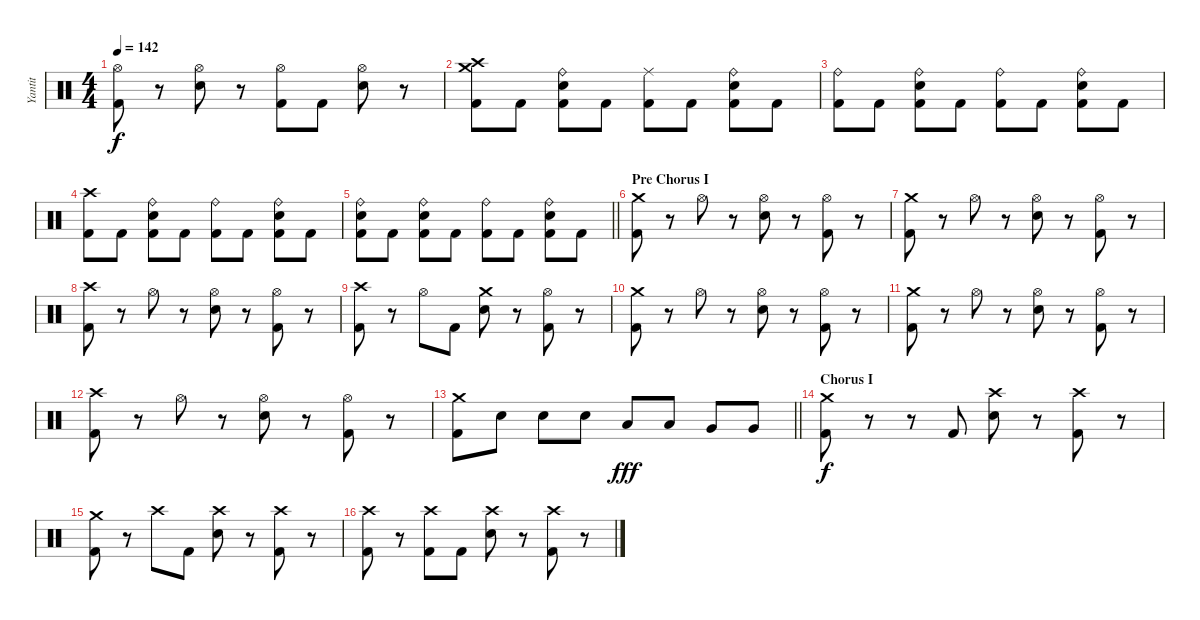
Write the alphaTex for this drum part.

\track ("Yantit" "Yantit") {instrument percussion}
\staff {score}
\articulation defaults
\ts (4 4)
\tempo 142
\clef neutral
\ks c
("Hi-Hat (open)" "Kick (hit) 2").8{dy f} r.8 ("Hi-Hat (open)" "Electric Snare (hit)").8 r.8 ("Hi-Hat (open)" "Kick (hit) 2").8 "Kick (hit) 2".8 ("Hi-Hat (open)" "Electric Snare (hit)").8 r.8 |
("Crash medium (hit)" "Crash high (hit)" "Kick (hit) 2").8 "Kick (hit) 2".8 ("Ride (bell)" "Electric Snare (hit)" "Kick (hit) 2").8 "Kick (hit) 2".8 ("Ride (middle)" "Kick (hit) 2").8 "Kick (hit) 2".8 ("Ride (bell)" "Electric Snare (hit)" "Kick (hit) 2").8 "Kick (hit) 2".8 |
("Ride (bell)" "Kick (hit) 2").8 "Kick (hit) 2".8 ("Ride (bell)" "Electric Snare (hit)" "Kick (hit) 2").8 "Kick (hit) 2".8 ("Ride (bell)" "Kick (hit) 2").8 "Kick (hit) 2".8 ("Ride (bell)" "Electric Snare (hit)" "Kick (hit) 2").8 "Kick (hit) 2".8 |
("Crash high (hit)" "Kick (hit) 2").8 "Kick (hit) 2".8 ("Ride (bell)" "Electric Snare (hit)" "Kick (hit) 2").8 "Kick (hit) 2".8 ("Ride (bell)" "Kick (hit) 2").8 "Kick (hit) 2".8 ("Ride (bell)" "Electric Snare (hit)" "Kick (hit) 2").8 "Kick (hit) 2".8 |
\barLineRight lightlight
("Ride (bell)" "Electric Snare (hit)" "Kick (hit) 2").8 "Kick (hit) 2".8 ("Ride (bell)" "Electric Snare (hit)" "Kick (hit) 2").8 "Kick (hit) 2".8 ("Ride (bell)" "Kick (hit) 2").8 "Kick (hit) 2".8 ("Ride (bell)" "Electric Snare (hit)" "Kick (hit) 2").8 "Kick (hit) 2".8 |
\section ("" "Pre Chorus I")
("Crash medium (hit)" "Kick (hit) 2").8 r.8 "Hi-Hat (open)".8 r.8 ("Hi-Hat (open)" "Electric Snare (hit)").8 r.8 ("Hi-Hat (open)" "Kick (hit) 2").8 r.8 |
("Crash medium (hit)" "Kick (hit) 2").8 r.8 "Hi-Hat (open)".8 r.8 ("Hi-Hat (open)" "Electric Snare (hit)").8 r.8 ("Hi-Hat (open)" "Kick (hit) 2").8 r.8 |
("Crash high (hit)" "Kick (hit) 2").8 r.8 "Hi-Hat (open)".8 r.8 ("Hi-Hat (open)" "Electric Snare (hit)").8 r.8 ("Hi-Hat (open)" "Kick (hit) 2").8 r.8 |
("Crash high (hit)" "Kick (hit) 2").8 r.8 "Hi-Hat (open)".8 "Kick (hit) 2".8 ("Crash medium (hit)" "Electric Snare (hit)").8 r.8 ("Hi-Hat (open)" "Kick (hit) 2").8 r.8 |
("Crash medium (hit)" "Kick (hit) 2").8 r.8 "Hi-Hat (open)".8 r.8 ("Hi-Hat (open)" "Electric Snare (hit)").8 r.8 ("Hi-Hat (open)" "Kick (hit) 2").8 r.8 |
("Crash medium (hit)" "Kick (hit) 2").8 r.8 "Hi-Hat (open)".8 r.8 ("Hi-Hat (open)" "Electric Snare (hit)").8 r.8 ("Hi-Hat (open)" "Kick (hit) 2").8 r.8 |
("Crash high (hit)" "Kick (hit) 2").8 r.8 "Hi-Hat (open)".8 r.8 ("Hi-Hat (open)" "Electric Snare (hit)").8 r.8 ("Hi-Hat (open)" "Kick (hit) 2").8 r.8 |
\barLineRight lightlight
("Crash medium (hit)" "Kick (hit) 2").8 "Electric Snare (hit)".8 "Electric Snare (hit)".8 "Electric Snare (hit)".8 "Low Tom (hit)".8{dy fff} "Low Tom (hit)".8 "Very Low Tom (hit)".8 "Very Low Tom (hit)".8 |
\section ("" "Chorus I")
("Crash medium (hit)" "Kick (hit) 2").8{dy f} r.8 r.8 "Kick (hit) 2".8 ("Crash high (hit)" "Electric Snare (hit)").8 r.8 ("Crash high (hit)" "Kick (hit) 2").8 r.8 |
("Crash medium (hit)" "Kick (hit) 2").8 r.8 "Crash high (hit)".8 "Kick (hit) 2".8 ("Crash high (hit)" "Electric Snare (hit)").8 r.8 ("Crash high (hit)" "Kick (hit) 2").8 r.8 |
("Crash high (hit)" "Kick (hit) 2").8 r.8 ("Crash high (hit)" "Kick (hit) 2").8 "Kick (hit) 2".8 ("Crash high (hit)" "Electric Snare (hit)").8 r.8 ("Crash high (hit)" "Kick (hit) 2").8 r.8
